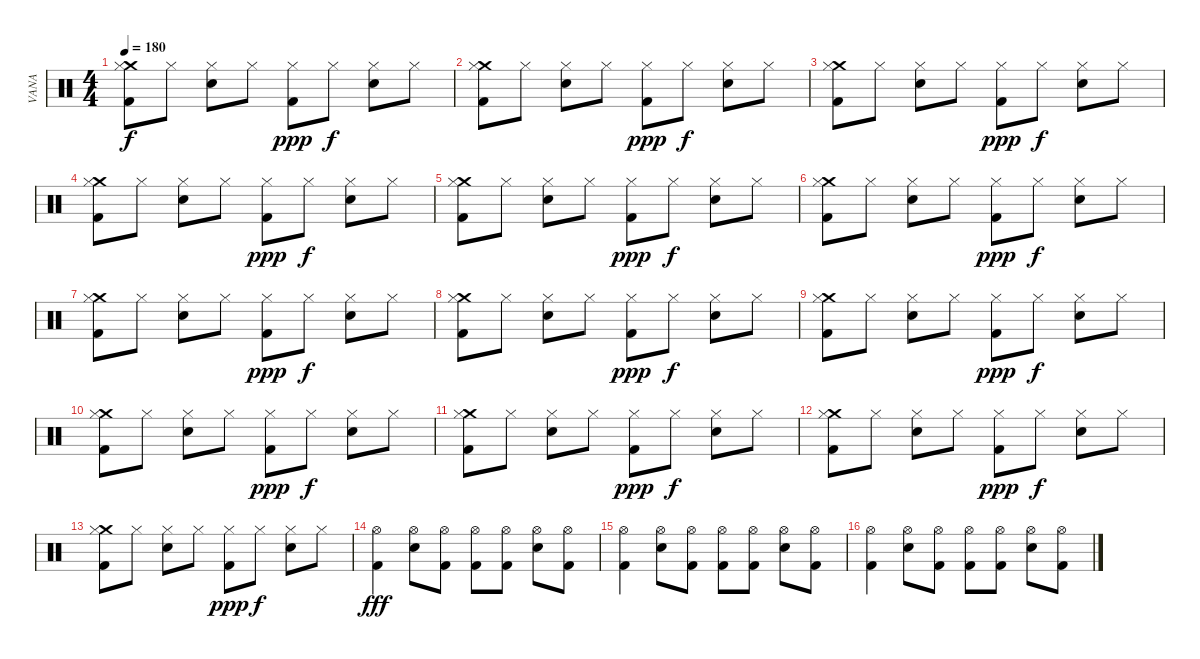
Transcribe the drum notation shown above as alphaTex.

\track ("VANA" "VANA") {instrument percussion}
\staff {score}
\articulation defaults
\ts (4 4)
\tempo 180
\clef neutral
\ks c
("Crash medium (hit)" "Hi-Hat (closed)" "Kick (hit) 2").8{dy f} "Hi-Hat (closed)".8 ("Hi-Hat (closed)" "Electric Snare (hit)").8 "Hi-Hat (closed)".8 ("Hi-Hat (closed)" "Kick (hit) 2").8{dy ppp} "Hi-Hat (closed)".8{dy f} ("Hi-Hat (closed)" "Electric Snare (hit)").8 "Hi-Hat (closed)".8 |
("Crash medium (hit)" "Hi-Hat (closed)" "Kick (hit) 2").8 "Hi-Hat (closed)".8 ("Hi-Hat (closed)" "Electric Snare (hit)").8 "Hi-Hat (closed)".8 ("Hi-Hat (closed)" "Kick (hit) 2").8{dy ppp} "Hi-Hat (closed)".8{dy f} ("Hi-Hat (closed)" "Electric Snare (hit)").8 "Hi-Hat (closed)".8 |
("Crash medium (hit)" "Hi-Hat (closed)" "Kick (hit) 2").8 "Hi-Hat (closed)".8 ("Hi-Hat (closed)" "Electric Snare (hit)").8 "Hi-Hat (closed)".8 ("Hi-Hat (closed)" "Kick (hit) 2").8{dy ppp} "Hi-Hat (closed)".8{dy f} ("Hi-Hat (closed)" "Electric Snare (hit)").8 "Hi-Hat (closed)".8 |
("Crash medium (hit)" "Hi-Hat (closed)" "Kick (hit) 2").8 "Hi-Hat (closed)".8 ("Hi-Hat (closed)" "Electric Snare (hit)").8 "Hi-Hat (closed)".8 ("Hi-Hat (closed)" "Kick (hit) 2").8{dy ppp} "Hi-Hat (closed)".8{dy f} ("Hi-Hat (closed)" "Electric Snare (hit)").8 "Hi-Hat (closed)".8 |
("Crash medium (hit)" "Hi-Hat (closed)" "Kick (hit) 2").8 "Hi-Hat (closed)".8 ("Hi-Hat (closed)" "Electric Snare (hit)").8 "Hi-Hat (closed)".8 ("Hi-Hat (closed)" "Kick (hit) 2").8{dy ppp} "Hi-Hat (closed)".8{dy f} ("Hi-Hat (closed)" "Electric Snare (hit)").8 "Hi-Hat (closed)".8 |
("Crash medium (hit)" "Hi-Hat (closed)" "Kick (hit) 2").8 "Hi-Hat (closed)".8 ("Hi-Hat (closed)" "Electric Snare (hit)").8 "Hi-Hat (closed)".8 ("Hi-Hat (closed)" "Kick (hit) 2").8{dy ppp} "Hi-Hat (closed)".8{dy f} ("Hi-Hat (closed)" "Electric Snare (hit)").8 "Hi-Hat (closed)".8 |
("Crash medium (hit)" "Hi-Hat (closed)" "Kick (hit) 2").8 "Hi-Hat (closed)".8 ("Hi-Hat (closed)" "Electric Snare (hit)").8 "Hi-Hat (closed)".8 ("Hi-Hat (closed)" "Kick (hit) 2").8{dy ppp} "Hi-Hat (closed)".8{dy f} ("Hi-Hat (closed)" "Electric Snare (hit)").8 "Hi-Hat (closed)".8 |
("Crash medium (hit)" "Hi-Hat (closed)" "Kick (hit) 2").8 "Hi-Hat (closed)".8 ("Hi-Hat (closed)" "Electric Snare (hit)").8 "Hi-Hat (closed)".8 ("Hi-Hat (closed)" "Kick (hit) 2").8{dy ppp} "Hi-Hat (closed)".8{dy f} ("Hi-Hat (closed)" "Electric Snare (hit)").8 "Hi-Hat (closed)".8 |
("Crash medium (hit)" "Hi-Hat (closed)" "Kick (hit) 2").8 "Hi-Hat (closed)".8 ("Hi-Hat (closed)" "Electric Snare (hit)").8 "Hi-Hat (closed)".8 ("Hi-Hat (closed)" "Kick (hit) 2").8{dy ppp} "Hi-Hat (closed)".8{dy f} ("Hi-Hat (closed)" "Electric Snare (hit)").8 "Hi-Hat (closed)".8 |
("Crash medium (hit)" "Hi-Hat (closed)" "Kick (hit) 2").8 "Hi-Hat (closed)".8 ("Hi-Hat (closed)" "Electric Snare (hit)").8 "Hi-Hat (closed)".8 ("Hi-Hat (closed)" "Kick (hit) 2").8{dy ppp} "Hi-Hat (closed)".8{dy f} ("Hi-Hat (closed)" "Electric Snare (hit)").8 "Hi-Hat (closed)".8 |
("Crash medium (hit)" "Hi-Hat (closed)" "Kick (hit) 2").8 "Hi-Hat (closed)".8 ("Hi-Hat (closed)" "Electric Snare (hit)").8 "Hi-Hat (closed)".8 ("Hi-Hat (closed)" "Kick (hit) 2").8{dy ppp} "Hi-Hat (closed)".8{dy f} ("Hi-Hat (closed)" "Electric Snare (hit)").8 "Hi-Hat (closed)".8 |
("Crash medium (hit)" "Hi-Hat (closed)" "Kick (hit) 2").8 "Hi-Hat (closed)".8 ("Hi-Hat (closed)" "Electric Snare (hit)").8 "Hi-Hat (closed)".8 ("Hi-Hat (closed)" "Kick (hit) 2").8{dy ppp} "Hi-Hat (closed)".8{dy f} ("Hi-Hat (closed)" "Electric Snare (hit)").8 "Hi-Hat (closed)".8 |
("Crash medium (hit)" "Hi-Hat (closed)" "Kick (hit) 2").8 "Hi-Hat (closed)".8 ("Hi-Hat (closed)" "Electric Snare (hit)").8 "Hi-Hat (closed)".8 ("Hi-Hat (closed)" "Kick (hit) 2").8{dy ppp} "Hi-Hat (closed)".8{dy f} ("Hi-Hat (closed)" "Electric Snare (hit)").8 "Hi-Hat (closed)".8 |
("Kick (hit) 2" "Hi-Hat (open)").4{dy fff} ("Hi-Hat (open)" "Electric Snare (hit)").8 ("Hi-Hat (open)" "Kick (hit) 2").8 ("Hi-Hat (open)" "Kick (hit) 2").8 ("Hi-Hat (open)" "Kick (hit) 2").8 ("Hi-Hat (open)" "Electric Snare (hit)").8 ("Hi-Hat (open)" "Kick (hit) 2").8 |
("Kick (hit) 2" "Hi-Hat (open)").4 ("Hi-Hat (open)" "Electric Snare (hit)").8 ("Hi-Hat (open)" "Kick (hit) 2").8 ("Hi-Hat (open)" "Kick (hit) 2").8 ("Hi-Hat (open)" "Kick (hit) 2").8 ("Hi-Hat (open)" "Electric Snare (hit)").8 ("Hi-Hat (open)" "Kick (hit) 2").8 |
("Kick (hit) 2" "Hi-Hat (open)").4 ("Hi-Hat (open)" "Electric Snare (hit)").8 ("Hi-Hat (open)" "Kick (hit) 2").8 ("Hi-Hat (open)" "Kick (hit) 2").8 ("Hi-Hat (open)" "Kick (hit) 2").8 ("Hi-Hat (open)" "Electric Snare (hit)").8 ("Hi-Hat (open)" "Kick (hit) 2").8
